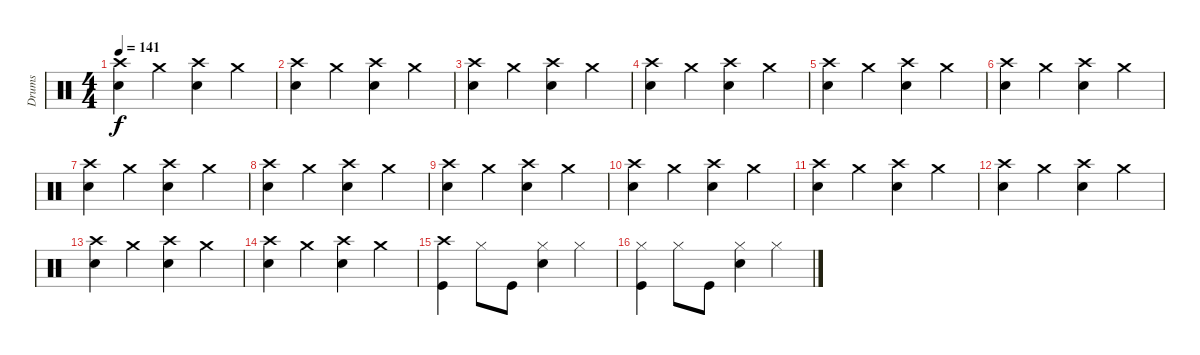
\track ("Drums" "Drums") {instrument percussion}
\staff {score}
\articulation defaults
\ts (4 4)
\tempo 141
\clef neutral
\ks c
("Crash high (hit)" "Snare (hit) 2").4{dy f} "Crash medium (hit)".4 ("Crash high (hit)" "Snare (hit) 2").4 "Crash medium (hit)".4 |
("Crash high (hit)" "Snare (hit) 2").4 "Crash medium (hit)".4 ("Crash high (hit)" "Snare (hit) 2").4 "Crash medium (hit)".4 |
("Crash high (hit)" "Snare (hit) 2").4 "Crash medium (hit)".4 ("Crash high (hit)" "Snare (hit) 2").4 "Crash medium (hit)".4 |
("Crash high (hit)" "Snare (hit) 2").4 "Crash medium (hit)".4 ("Crash high (hit)" "Snare (hit) 2").4 "Crash medium (hit)".4 |
("Crash high (hit)" "Snare (hit) 2").4 "Crash medium (hit)".4 ("Crash high (hit)" "Snare (hit) 2").4 "Crash medium (hit)".4 |
("Crash high (hit)" "Snare (hit) 2").4 "Crash medium (hit)".4 ("Crash high (hit)" "Snare (hit) 2").4 "Crash medium (hit)".4 |
("Crash high (hit)" "Snare (hit) 2").4 "Crash medium (hit)".4 ("Crash high (hit)" "Snare (hit) 2").4 "Crash medium (hit)".4 |
("Crash high (hit)" "Snare (hit) 2").4 "Crash medium (hit)".4 ("Crash high (hit)" "Snare (hit) 2").4 "Crash medium (hit)".4 |
("Crash high (hit)" "Snare (hit) 2").4 "Crash medium (hit)".4 ("Crash high (hit)" "Snare (hit) 2").4 "Crash medium (hit)".4 |
("Crash high (hit)" "Snare (hit) 2").4 "Crash medium (hit)".4 ("Crash high (hit)" "Snare (hit) 2").4 "Crash medium (hit)".4 |
("Crash high (hit)" "Snare (hit) 2").4 "Crash medium (hit)".4 ("Crash high (hit)" "Snare (hit) 2").4 "Crash medium (hit)".4 |
("Crash high (hit)" "Snare (hit) 2").4 "Crash medium (hit)".4 ("Crash high (hit)" "Snare (hit) 2").4 "Crash medium (hit)".4 |
("Crash high (hit)" "Snare (hit) 2").4 "Crash medium (hit)".4 ("Crash high (hit)" "Snare (hit) 2").4 "Crash medium (hit)".4 |
("Crash high (hit)" "Snare (hit) 2").4 "Crash medium (hit)".4 ("Crash high (hit)" "Snare (hit) 2").4 "Crash medium (hit)".4 |
("Crash high (hit)" "Kick (hit)").4 "Hi-Hat (closed)".8 "Kick (hit)".8 ("Hi-Hat (closed)" "Snare (hit) 2").4 "Hi-Hat (closed)".4 |
("Hi-Hat (closed)" "Kick (hit)").4 "Hi-Hat (closed)".8 "Kick (hit)".8 ("Hi-Hat (closed)" "Snare (hit) 2").4 "Hi-Hat (closed)".4
